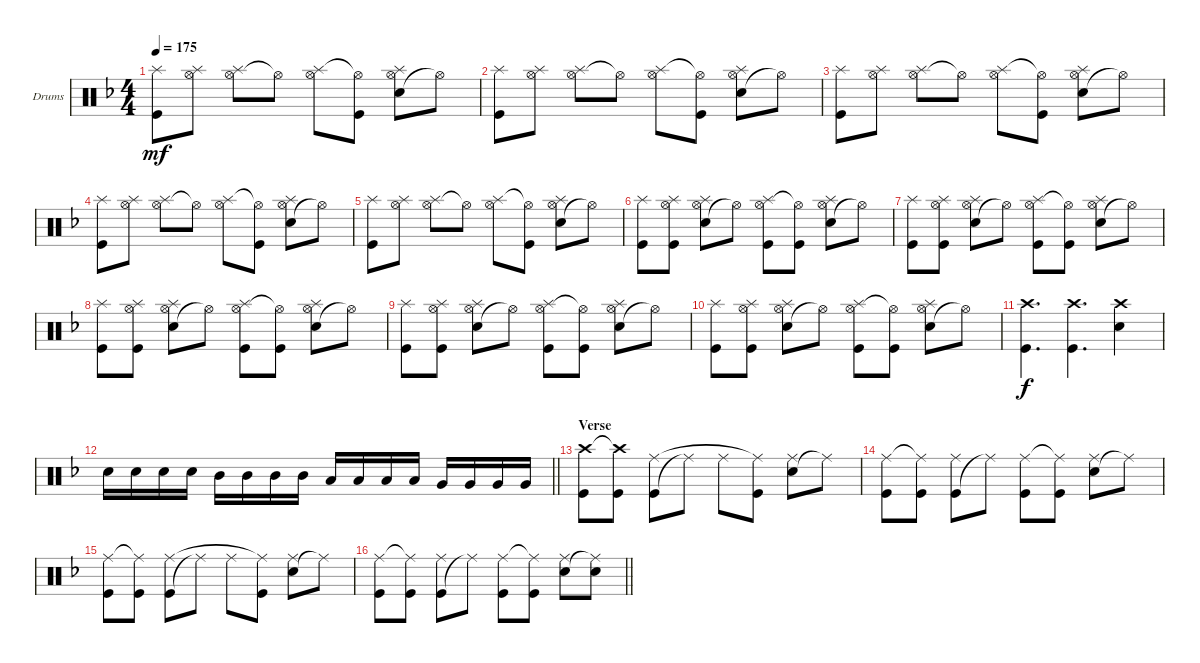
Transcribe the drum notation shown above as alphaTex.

\bracketExtendMode groupsimilarinstruments
\firstSystemTrackNameOrientation horizontal
\otherSystemsTrackNameOrientation horizontal
\track ("Drumkit" "Drums") {instrument percussion}
\staff {score}
\articulation defaults
\ts (4 4)
\tempo 175
\clef neutral
\ks f
("Kick (hit)" "Splash (hit)").8{dy mf} ("Hi-Hat (open)" "Splash (hit)").8 ("Hi-Hat (open)" "Splash (hit)").8 "Hi-Hat (open)"{t}.8 ("Hi-Hat (open)" "Splash (hit)").8 ("Kick (hit)" "Hi-Hat (open)"{t}).8 ("Snare (hit) 2" "Hi-Hat (open)" "Splash (hit)").8 "Hi-Hat (open)"{t}.8 |
("Kick (hit)" "Splash (hit)").8 ("Hi-Hat (open)" "Splash (hit)").8 ("Hi-Hat (open)" "Splash (hit)").8 "Hi-Hat (open)"{t}.8 ("Hi-Hat (open)" "Splash (hit)").8 ("Kick (hit)" "Hi-Hat (open)"{t}).8 ("Snare (hit) 2" "Hi-Hat (open)" "Splash (hit)").8 "Hi-Hat (open)"{t}.8 |
("Kick (hit)" "Splash (hit)").8 ("Hi-Hat (open)" "Splash (hit)").8 ("Hi-Hat (open)" "Splash (hit)").8 "Hi-Hat (open)"{t}.8 ("Hi-Hat (open)" "Splash (hit)").8 ("Kick (hit)" "Hi-Hat (open)"{t}).8 ("Snare (hit) 2" "Hi-Hat (open)" "Splash (hit)").8 "Hi-Hat (open)"{t}.8 |
("Kick (hit)" "Splash (hit)").8 ("Hi-Hat (open)" "Splash (hit)").8 ("Hi-Hat (open)" "Splash (hit)").8 "Hi-Hat (open)"{t}.8 ("Hi-Hat (open)" "Splash (hit)").8 ("Kick (hit)" "Hi-Hat (open)"{t}).8 ("Snare (hit) 2" "Hi-Hat (open)" "Splash (hit)").8 "Hi-Hat (open)"{t}.8 |
("Kick (hit)" "Splash (hit)").8 ("Hi-Hat (open)" "Splash (hit)").8 ("Hi-Hat (open)" "Splash (hit)").8 "Hi-Hat (open)"{t}.8 ("Hi-Hat (open)" "Splash (hit)").8 ("Kick (hit)" "Hi-Hat (open)"{t}).8 ("Snare (hit) 2" "Hi-Hat (open)" "Splash (hit)").8 "Hi-Hat (open)"{t}.8 |
("Kick (hit)" "Splash (hit)").8 ("Kick (hit)" "Hi-Hat (open)" "Splash (hit)").8 ("Snare (hit) 2" "Hi-Hat (open)" "Splash (hit)").8 "Hi-Hat (open)"{t}.8 ("Kick (hit)" "Hi-Hat (open)" "Splash (hit)").8 ("Kick (hit)" "Hi-Hat (open)"{t}).8 ("Snare (hit) 2" "Hi-Hat (open)" "Splash (hit)").8 "Hi-Hat (open)"{t}.8 |
("Kick (hit)" "Splash (hit)").8 ("Kick (hit)" "Hi-Hat (open)" "Splash (hit)").8 ("Snare (hit) 2" "Hi-Hat (open)" "Splash (hit)").8 "Hi-Hat (open)"{t}.8 ("Kick (hit)" "Hi-Hat (open)" "Splash (hit)").8 ("Kick (hit)" "Hi-Hat (open)"{t}).8 ("Snare (hit) 2" "Hi-Hat (open)" "Splash (hit)").8 "Hi-Hat (open)"{t}.8 |
("Kick (hit)" "Splash (hit)").8 ("Kick (hit)" "Hi-Hat (open)" "Splash (hit)").8 ("Snare (hit) 2" "Hi-Hat (open)" "Splash (hit)").8 "Hi-Hat (open)"{t}.8 ("Kick (hit)" "Hi-Hat (open)" "Splash (hit)").8 ("Kick (hit)" "Hi-Hat (open)"{t}).8 ("Snare (hit) 2" "Hi-Hat (open)" "Splash (hit)").8 "Hi-Hat (open)"{t}.8 |
("Kick (hit)" "Splash (hit)").8 ("Kick (hit)" "Hi-Hat (open)" "Splash (hit)").8 ("Snare (hit) 2" "Hi-Hat (open)" "Splash (hit)").8 "Hi-Hat (open)"{t}.8 ("Kick (hit)" "Hi-Hat (open)" "Splash (hit)").8 ("Kick (hit)" "Hi-Hat (open)"{t}).8 ("Snare (hit) 2" "Hi-Hat (open)" "Splash (hit)").8 "Hi-Hat (open)"{t}.8 |
("Kick (hit)" "Splash (hit)").8 ("Kick (hit)" "Hi-Hat (open)" "Splash (hit)").8 ("Snare (hit) 2" "Hi-Hat (open)" "Splash (hit)").8 "Hi-Hat (open)"{t}.8 ("Kick (hit)" "Hi-Hat (open)" "Splash (hit)").8 ("Kick (hit)" "Hi-Hat (open)"{t}).8 ("Snare (hit) 2" "Hi-Hat (open)" "Splash (hit)").8 "Hi-Hat (open)"{t}.8 |
("Crash high (hit)" "Kick (hit)").4{d dy f} ("Kick (hit)" "Crash high (hit)").4{d} ("Snare (hit) 2" "Crash high (hit)").4 |
\barLineRight lightlight "Snare (hit) 2".16 "Snare (hit) 2".16 "Snare (hit) 2".16 "Snare (hit) 2".16 "Mid Tom (hit)".16 "Mid Tom (hit)".16 "Mid Tom (hit)".16 "Mid Tom (hit)".16 "Low Tom (hit)".16 "Low Tom (hit)".16 "Low Tom (hit)".16 "Low Tom (hit)".16 "Very Low Tom (hit)".16 "Very Low Tom (hit)".16 "Very Low Tom (hit)".16 "Very Low Tom (hit)".16
|
\section ("" "Verse")
("Kick (hit)" "Crash high (hit)").8 ("Kick (hit)" "Crash high (hit)"{t}).8 ("Kick (hit)" "Ride (middle)").8 "Ride (middle)"{t}.8 "Ride (middle)".8 ("Kick (hit)" "Ride (middle)"{t}).8 ("Snare (hit) 2" "Ride (middle)").8 "Ride (middle)"{t}.8 |
("Kick (hit)" "Ride (middle)").8 ("Kick (hit)" "Ride (middle)"{t}).8 ("Kick (hit)" "Ride (middle)").8 "Ride (middle)"{t}.8 ("Kick (hit)" "Ride (middle)").8 ("Kick (hit)" "Ride (middle)"{t}).8 ("Snare (hit) 2" "Ride (middle)").8 "Ride (middle)"{t}.8 |
("Kick (hit)" "Ride (middle)").8 ("Kick (hit)" "Ride (middle)"{t}).8 ("Kick (hit)" "Ride (middle)").8 "Ride (middle)"{t}.8 "Ride (middle)".8 ("Kick (hit)" "Ride (middle)"{t}).8 ("Snare (hit) 2" "Ride (middle)").8 "Ride (middle)"{t}.8 |
\barLineRight lightlight
("Kick (hit)" "Ride (middle)").8 ("Kick (hit)" "Ride (middle)"{t}).8 ("Kick (hit)" "Ride (middle)").8 "Ride (middle)"{t}.8 ("Kick (hit)" "Ride (middle)").8 ("Kick (hit)" "Ride (middle)"{t}).8 ("Snare (hit) 2" "Ride (middle)").8 ("Ride (middle)"{t} "Snare (hit) 2").8
